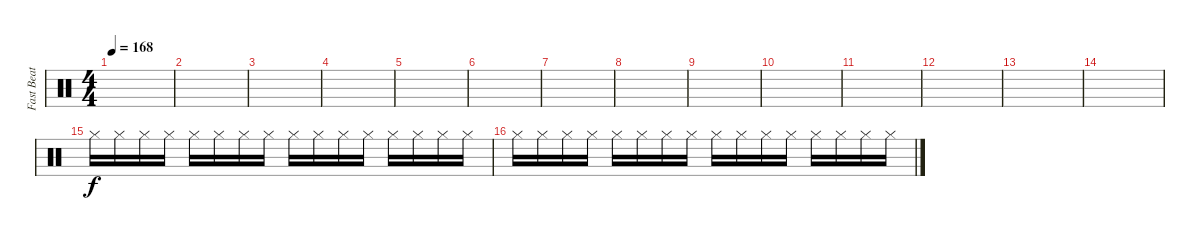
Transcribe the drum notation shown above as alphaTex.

\track ("Fast Beat" "Fast Beat") {instrument percussion}
\staff {score}
\articulation defaults
\ts (4 4)
\tempo 168
\clef neutral
\ks c
|
|
|
|
|
|
|
|
|
|
|
|
|
|
"Hi-Hat (closed)".16 "Hi-Hat (closed)".16 "Hi-Hat (closed)".16 "Hi-Hat (closed)".16 "Hi-Hat (closed)".16 "Hi-Hat (closed)".16 "Hi-Hat (closed)".16 "Hi-Hat (closed)".16 "Hi-Hat (closed)".16 "Hi-Hat (closed)".16 "Hi-Hat (closed)".16 "Hi-Hat (closed)".16 "Hi-Hat (closed)".16 "Hi-Hat (closed)".16 "Hi-Hat (closed)".16 "Hi-Hat (closed)".16 |
"Hi-Hat (closed)".16 "Hi-Hat (closed)".16 "Hi-Hat (closed)".16 "Hi-Hat (closed)".16 "Hi-Hat (closed)".16 "Hi-Hat (closed)".16 "Hi-Hat (closed)".16 "Hi-Hat (closed)".16 "Hi-Hat (closed)".16 "Hi-Hat (closed)".16 "Hi-Hat (closed)".16 "Hi-Hat (closed)".16 "Hi-Hat (closed)".16 "Hi-Hat (closed)".16 "Hi-Hat (closed)".16 "Hi-Hat (closed)".16
